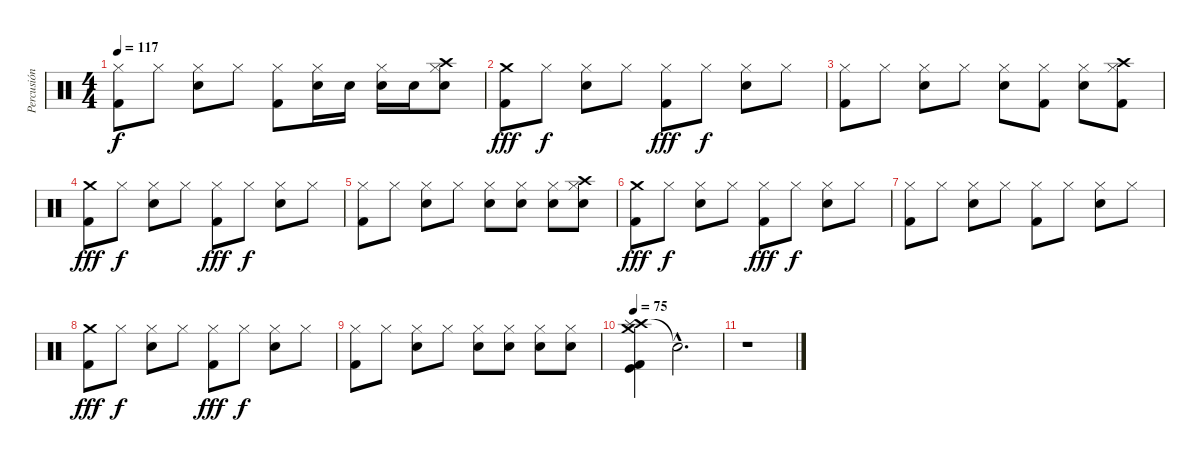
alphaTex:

\track ("Percusión" "Percusión") {instrument percussion}
\staff {score}
\articulation defaults
\ts (4 4)
\tempo 117
\clef neutral
\ks c
("Hi-Hat (closed)" "Kick (hit) 2").8{dy f} "Hi-Hat (closed)".8 ("Hi-Hat (closed)" "Snare (hit) 2").8 "Hi-Hat (closed)".8 ("Hi-Hat (closed)" "Kick (hit) 2").8 ("Hi-Hat (closed)" "Snare (hit) 2").16 "Snare (hit) 2".16 ("Hi-Hat (closed)" "Snare (hit) 2").16 "Snare (hit) 2".16 ("Snare (hit) 2" "Hi-Hat (closed)" "Crash high (hit)").8 |
("Crash medium (hit)" "Kick (hit) 2").8{dy fff} "Hi-Hat (closed)".8{dy f} ("Hi-Hat (closed)" "Snare (hit) 2").8 "Hi-Hat (closed)".8 ("Hi-Hat (closed)" "Kick (hit) 2").8{dy fff} "Hi-Hat (closed)".8{dy f} ("Hi-Hat (closed)" "Snare (hit) 2").8 "Hi-Hat (closed)".8 |
("Hi-Hat (closed)" "Kick (hit) 2").8 "Hi-Hat (closed)".8 ("Hi-Hat (closed)" "Snare (hit) 2").8 "Hi-Hat (closed)".8 ("Hi-Hat (closed)" "Snare (hit) 2").8 ("Hi-Hat (closed)" "Kick (hit) 2").8 ("Hi-Hat (closed)" "Snare (hit) 2").8 ("Hi-Hat (closed)" "Kick (hit) 2" "Crash high (hit)").8 |
("Crash medium (hit)" "Kick (hit) 2").8{dy fff} "Hi-Hat (closed)".8{dy f} ("Hi-Hat (closed)" "Snare (hit) 2").8 "Hi-Hat (closed)".8 ("Hi-Hat (closed)" "Kick (hit) 2").8{dy fff} "Hi-Hat (closed)".8{dy f} ("Hi-Hat (closed)" "Snare (hit) 2").8 "Hi-Hat (closed)".8 |
("Hi-Hat (closed)" "Kick (hit) 2").8 "Hi-Hat (closed)".8 ("Hi-Hat (closed)" "Snare (hit) 2").8 "Hi-Hat (closed)".8 ("Hi-Hat (closed)" "Snare (hit) 2").8 ("Hi-Hat (closed)" "Snare (hit) 2").8 ("Hi-Hat (closed)" "Snare (hit) 2").8 ("Hi-Hat (closed)" "Snare (hit) 2" "Crash high (hit)").8 |
("Crash medium (hit)" "Kick (hit) 2").8{dy fff} "Hi-Hat (closed)".8{dy f} ("Hi-Hat (closed)" "Snare (hit) 2").8 "Hi-Hat (closed)".8 ("Hi-Hat (closed)" "Kick (hit) 2").8{dy fff} "Hi-Hat (closed)".8{dy f} ("Hi-Hat (closed)" "Snare (hit) 2").8 "Hi-Hat (closed)".8 |
("Hi-Hat (closed)" "Kick (hit) 2").8 "Hi-Hat (closed)".8 ("Hi-Hat (closed)" "Snare (hit) 2").8 "Hi-Hat (closed)".8 ("Hi-Hat (closed)" "Kick (hit) 2").8 "Hi-Hat (closed)".8 ("Hi-Hat (closed)" "Snare (hit) 2").8 "Hi-Hat (closed)".8 |
("Crash medium (hit)" "Kick (hit) 2").8{dy fff} "Hi-Hat (closed)".8{dy f} ("Hi-Hat (closed)" "Snare (hit) 2").8 "Hi-Hat (closed)".8 ("Hi-Hat (closed)" "Kick (hit) 2").8{dy fff} "Hi-Hat (closed)".8{dy f} ("Hi-Hat (closed)" "Snare (hit) 2").8 "Hi-Hat (closed)".8 |
("Hi-Hat (closed)" "Kick (hit) 2").8 "Hi-Hat (closed)".8 ("Hi-Hat (closed)" "Snare (hit) 2").8 "Hi-Hat (closed)".8 ("Hi-Hat (closed)" "Snare (hit) 2").8 ("Hi-Hat (closed)" "Snare (hit) 2").8 ("Hi-Hat (closed)" "Snare (hit) 2").8 ("Hi-Hat (closed)" "Snare (hit) 2").8 |
\tempo 75
("Crash high (hit)" "Crash medium (hit)" "Kick (hit)" "Kick (hit) 2" "Splash (hit)").4 "Snare (hit)"{hac t}.2{d} |
r.1
